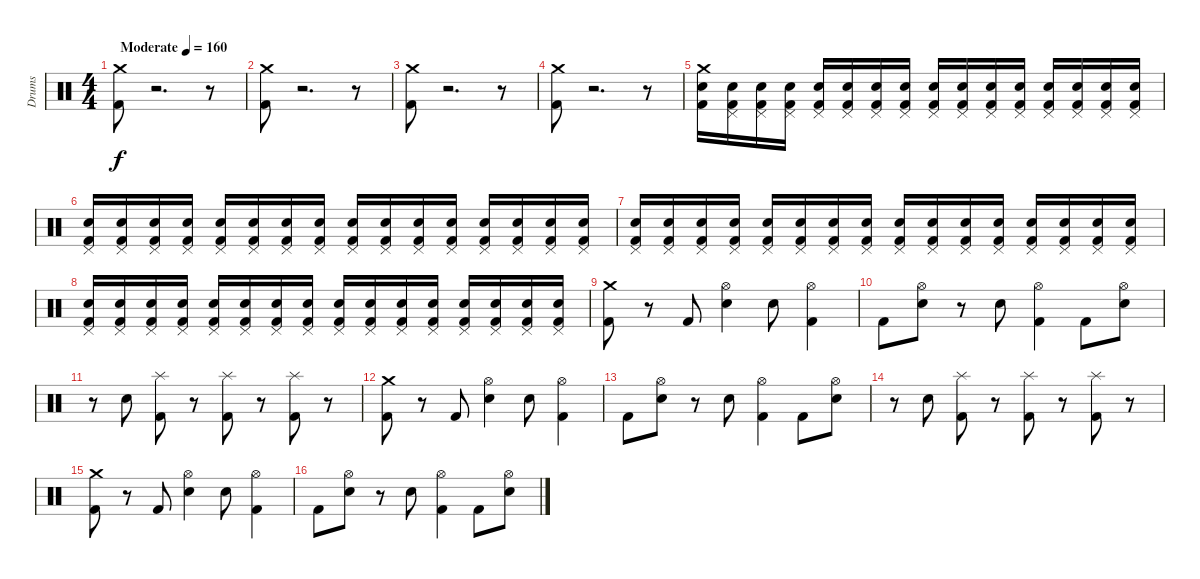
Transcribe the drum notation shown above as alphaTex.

\track ("Drums" "Drums") {instrument percussion}
\staff {score}
\articulation defaults
\ts (4 4)
\tempo (160 "Moderate")
\clef neutral
\ks c
("Crash medium (hit)" "Kick (hit) 2").8{dy f} r.2{d} r.8 |
("Crash medium (hit)" "Kick (hit) 2").8 r.2{d} r.8 |
("Crash medium (hit)" "Kick (hit) 2").8 r.2{d} r.8 |
("Crash medium (hit)" "Kick (hit) 2").8 r.2{d} r.8 |
("Electric Snare (hit)" "Crash medium (hit)" "Kick (hit) 2").16 ("Pedal Hi-Hat (hit)" "Kick (hit) 2" "Electric Snare (hit)").16 ("Pedal Hi-Hat (hit)" "Kick (hit) 2" "Electric Snare (hit)").16 ("Pedal Hi-Hat (hit)" "Kick (hit) 2" "Electric Snare (hit)").16 ("Pedal Hi-Hat (hit)" "Kick (hit) 2" "Electric Snare (hit)").16 ("Pedal Hi-Hat (hit)" "Kick (hit) 2" "Electric Snare (hit)").16 ("Pedal Hi-Hat (hit)" "Kick (hit) 2" "Electric Snare (hit)").16 ("Pedal Hi-Hat (hit)" "Kick (hit) 2" "Electric Snare (hit)").16 ("Pedal Hi-Hat (hit)" "Kick (hit) 2" "Electric Snare (hit)").16 ("Pedal Hi-Hat (hit)" "Kick (hit) 2" "Electric Snare (hit)").16 ("Pedal Hi-Hat (hit)" "Kick (hit) 2" "Electric Snare (hit)").16 ("Pedal Hi-Hat (hit)" "Kick (hit) 2" "Electric Snare (hit)").16 ("Pedal Hi-Hat (hit)" "Kick (hit) 2" "Electric Snare (hit)").16 ("Pedal Hi-Hat (hit)" "Kick (hit) 2" "Electric Snare (hit)").16 ("Pedal Hi-Hat (hit)" "Kick (hit) 2" "Electric Snare (hit)").16 ("Pedal Hi-Hat (hit)" "Kick (hit) 2" "Electric Snare (hit)").16 |
("Electric Snare (hit)" "Kick (hit) 2" "Pedal Hi-Hat (hit)").16 ("Pedal Hi-Hat (hit)" "Kick (hit) 2" "Electric Snare (hit)").16 ("Pedal Hi-Hat (hit)" "Kick (hit) 2" "Electric Snare (hit)").16 ("Pedal Hi-Hat (hit)" "Kick (hit) 2" "Electric Snare (hit)").16 ("Pedal Hi-Hat (hit)" "Kick (hit) 2" "Electric Snare (hit)").16 ("Pedal Hi-Hat (hit)" "Kick (hit) 2" "Electric Snare (hit)").16 ("Pedal Hi-Hat (hit)" "Kick (hit) 2" "Electric Snare (hit)").16 ("Pedal Hi-Hat (hit)" "Kick (hit) 2" "Electric Snare (hit)").16 ("Pedal Hi-Hat (hit)" "Kick (hit) 2" "Electric Snare (hit)").16 ("Pedal Hi-Hat (hit)" "Kick (hit) 2" "Electric Snare (hit)").16 ("Pedal Hi-Hat (hit)" "Kick (hit) 2" "Electric Snare (hit)").16 ("Pedal Hi-Hat (hit)" "Kick (hit) 2" "Electric Snare (hit)").16 ("Pedal Hi-Hat (hit)" "Kick (hit) 2" "Electric Snare (hit)").16 ("Pedal Hi-Hat (hit)" "Kick (hit) 2" "Electric Snare (hit)").16 ("Pedal Hi-Hat (hit)" "Kick (hit) 2" "Electric Snare (hit)").16 ("Pedal Hi-Hat (hit)" "Kick (hit) 2" "Electric Snare (hit)").16 |
("Pedal Hi-Hat (hit)" "Electric Snare (hit)" "Kick (hit) 2").16 ("Pedal Hi-Hat (hit)" "Kick (hit) 2" "Electric Snare (hit)").16 ("Pedal Hi-Hat (hit)" "Kick (hit) 2" "Electric Snare (hit)").16 ("Pedal Hi-Hat (hit)" "Kick (hit) 2" "Electric Snare (hit)").16 ("Pedal Hi-Hat (hit)" "Kick (hit) 2" "Electric Snare (hit)").16 ("Pedal Hi-Hat (hit)" "Kick (hit) 2" "Electric Snare (hit)").16 ("Pedal Hi-Hat (hit)" "Kick (hit) 2" "Electric Snare (hit)").16 ("Pedal Hi-Hat (hit)" "Kick (hit) 2" "Electric Snare (hit)").16 ("Pedal Hi-Hat (hit)" "Kick (hit) 2" "Electric Snare (hit)").16 ("Pedal Hi-Hat (hit)" "Kick (hit) 2" "Electric Snare (hit)").16 ("Pedal Hi-Hat (hit)" "Kick (hit) 2" "Electric Snare (hit)").16 ("Pedal Hi-Hat (hit)" "Kick (hit) 2" "Electric Snare (hit)").16 ("Pedal Hi-Hat (hit)" "Kick (hit) 2" "Electric Snare (hit)").16 ("Pedal Hi-Hat (hit)" "Kick (hit) 2" "Electric Snare (hit)").16 ("Pedal Hi-Hat (hit)" "Kick (hit) 2" "Electric Snare (hit)").16 ("Pedal Hi-Hat (hit)" "Kick (hit) 2" "Electric Snare (hit)").16 |
("Electric Snare (hit)" "Kick (hit) 2" "Pedal Hi-Hat (hit)").16 ("Pedal Hi-Hat (hit)" "Kick (hit) 2" "Electric Snare (hit)").16 ("Pedal Hi-Hat (hit)" "Kick (hit) 2" "Electric Snare (hit)").16 ("Pedal Hi-Hat (hit)" "Kick (hit) 2" "Electric Snare (hit)").16 ("Pedal Hi-Hat (hit)" "Kick (hit) 2" "Electric Snare (hit)").16 ("Pedal Hi-Hat (hit)" "Kick (hit) 2" "Electric Snare (hit)").16 ("Pedal Hi-Hat (hit)" "Kick (hit) 2" "Electric Snare (hit)").16 ("Pedal Hi-Hat (hit)" "Kick (hit) 2" "Electric Snare (hit)").16 ("Pedal Hi-Hat (hit)" "Kick (hit) 2" "Electric Snare (hit)").16 ("Pedal Hi-Hat (hit)" "Kick (hit) 2" "Electric Snare (hit)").16 ("Pedal Hi-Hat (hit)" "Kick (hit) 2" "Electric Snare (hit)").16 ("Pedal Hi-Hat (hit)" "Kick (hit) 2" "Electric Snare (hit)").16 ("Pedal Hi-Hat (hit)" "Kick (hit) 2" "Electric Snare (hit)").16 ("Pedal Hi-Hat (hit)" "Kick (hit) 2" "Electric Snare (hit)").16 ("Pedal Hi-Hat (hit)" "Kick (hit) 2" "Electric Snare (hit)").16 ("Pedal Hi-Hat (hit)" "Kick (hit) 2" "Electric Snare (hit)").16 |
("Crash medium (hit)" "Kick (hit) 2").8 r.8 "Kick (hit) 2".8 ("Hi-Hat (open)" "Electric Snare (hit)").4 "Electric Snare (hit)".8 ("Hi-Hat (open)" "Kick (hit) 2").4 |
"Kick (hit) 2".8 ("Hi-Hat (open)" "Electric Snare (hit)").8 r.8 "Electric Snare (hit)".8 ("Hi-Hat (open)" "Kick (hit) 2").4 "Kick (hit) 2".8 ("Hi-Hat (open)" "Electric Snare (hit)").8 |
r.8 "Electric Snare (hit)".8 ("Splash (hit)" "Kick (hit) 2").8 r.8 ("Splash (hit)" "Kick (hit) 2").8 r.8 ("Splash (hit)" "Kick (hit) 2").8 r.8 |
("Crash medium (hit)" "Kick (hit) 2").8 r.8 "Kick (hit) 2".8 ("Hi-Hat (open)" "Electric Snare (hit)").4 "Electric Snare (hit)".8 ("Hi-Hat (open)" "Kick (hit) 2").4 |
"Kick (hit) 2".8 ("Hi-Hat (open)" "Electric Snare (hit)").8 r.8 "Electric Snare (hit)".8 ("Hi-Hat (open)" "Kick (hit) 2").4 "Kick (hit) 2".8 ("Hi-Hat (open)" "Electric Snare (hit)").8 |
r.8 "Electric Snare (hit)".8 ("Splash (hit)" "Kick (hit) 2").8 r.8 ("Splash (hit)" "Kick (hit) 2").8 r.8 ("Splash (hit)" "Kick (hit) 2").8 r.8 |
("Crash medium (hit)" "Kick (hit) 2").8 r.8 "Kick (hit) 2".8 ("Hi-Hat (open)" "Electric Snare (hit)").4 "Electric Snare (hit)".8 ("Hi-Hat (open)" "Kick (hit) 2").4 |
"Kick (hit) 2".8 ("Hi-Hat (open)" "Electric Snare (hit)").8 r.8 "Electric Snare (hit)".8 ("Hi-Hat (open)" "Kick (hit) 2").4 "Kick (hit) 2".8 ("Hi-Hat (open)" "Electric Snare (hit)").8
